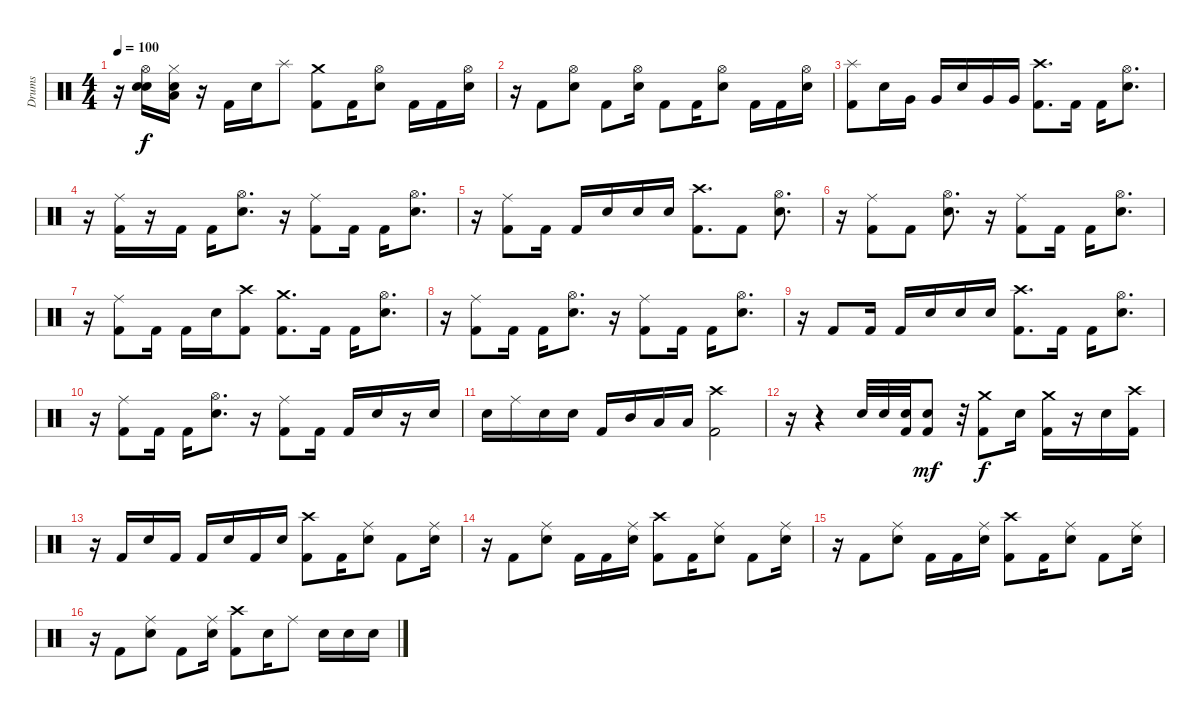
\track ("Drums" "Drums") {instrument percussion}
\staff {score}
\articulation defaults
\ts (4 4)
\tempo 100
\clef neutral
\ks c
r.16{dy f} ("Hi-Hat (open)" "Electric Snare (hit)" "Snare (hit) 2").16 ("Hi-Hat (closed)" "Low Tom (hit)" "Snare (hit) 2").16 r.16 "Kick (hit) 2".16 "Snare (hit) 2".16 "Splash (hit)".8 ("Crash medium (hit)" "Kick (hit) 2").8 "Kick (hit) 2".16 ("Hi-Hat (open)" "Snare (hit) 2").8 "Kick (hit) 2".16 "Kick (hit) 2".16 ("Hi-Hat (open)" "Snare (hit) 2").16 |
r.16 "Kick (hit) 2".8 ("Hi-Hat (open)" "Snare (hit) 2").8 "Kick (hit) 2".8 ("Hi-Hat (open)" "Snare (hit) 2").16 "Kick (hit) 2".8 "Kick (hit) 2".16 ("Hi-Hat (open)" "Snare (hit) 2").8 "Kick (hit) 2".16 "Kick (hit) 2".16 ("Hi-Hat (open)" "Snare (hit) 2").16 |
("Splash (hit)" "Kick (hit) 2").8 "Snare (hit) 2".16 "Very Low Tom (hit)".16 "Very Low Tom (hit)".16 "Snare (hit) 2".16 "Very Low Tom (hit)".16 "Very Low Tom (hit)".16 ("Crash high (hit)" "Kick (hit) 2").8{d} "Kick (hit) 2".16 "Kick (hit) 2".16 ("Hi-Hat (open)" "Snare (hit) 2").8{d} |
r.16 ("Ride (middle)" "Kick (hit) 2").16 r.16 "Kick (hit) 2".16 "Kick (hit) 2".16 ("Hi-Hat (open)" "Snare (hit) 2").8{d} r.16 ("Ride (middle)" "Kick (hit) 2").8 "Kick (hit) 2".16 "Kick (hit) 2".16 ("Hi-Hat (open)" "Snare (hit) 2").8{d} |
r.16 ("Ride (middle)" "Kick (hit) 2").8 "Kick (hit) 2".16 "Kick (hit) 2".16 "Snare (hit) 2".16 "Snare (hit) 2".16 "Snare (hit) 2".16 ("Crash high (hit)" "Kick (hit) 2").8{d} "Kick (hit) 2".8 ("Hi-Hat (open)" "Snare (hit) 2").8{d} |
r.16 ("Ride (middle)" "Kick (hit) 2").8 "Kick (hit) 2".8 ("Hi-Hat (open)" "Snare (hit) 2").8{d} r.16 ("Ride (middle)" "Kick (hit) 2").8 "Kick (hit) 2".16 "Kick (hit) 2".16 ("Hi-Hat (open)" "Snare (hit) 2").8{d} |
r.16 ("Ride (middle)" "Kick (hit) 2").8 "Kick (hit) 2".16 "Kick (hit) 2".16 "Snare (hit) 2".16 ("Crash high (hit)" "Kick (hit) 2").8 ("Crash medium (hit)" "Kick (hit) 2").8{d} "Kick (hit) 2".16 "Kick (hit) 2".16 ("Hi-Hat (open)" "Snare (hit) 2").8{d} |
r.16 ("Ride (middle)" "Kick (hit) 2").8 "Kick (hit) 2".16 "Kick (hit) 2".16 ("Hi-Hat (open)" "Snare (hit) 2").8{d} r.16 ("Ride (middle)" "Kick (hit) 2").8 "Kick (hit) 2".16 "Kick (hit) 2".16 ("Hi-Hat (open)" "Snare (hit) 2").8{d} |
r.16 "Kick (hit) 2".8 "Kick (hit) 2".16 "Kick (hit) 2".16 "Snare (hit) 2".16 "Snare (hit) 2".16 "Snare (hit) 2".16 ("Crash high (hit)" "Kick (hit) 2").8{d} "Kick (hit) 2".16 "Kick (hit) 2".16 ("Hi-Hat (open)" "Snare (hit) 2").8{d} |
r.16 ("Ride (middle)" "Kick (hit) 2").8 "Kick (hit) 2".16 "Kick (hit) 2".16 ("Hi-Hat (open)" "Snare (hit) 2").8{d} r.16 ("Ride (middle)" "Kick (hit) 2").8 "Kick (hit) 2".16 "Kick (hit) 2".16 "Snare (hit) 2".16 r.16 "Snare (hit) 2".16 |
"Snare (hit) 2".16 "Ride (middle)".16 "Snare (hit) 2".16 "Snare (hit) 2".16 "Kick (hit) 2".16 "Mid Tom (hit)".16 "Low Tom (hit)".16 "Low Tom (hit)".16 ("Crash high (hit)" "Kick (hit) 2").2 |
r.16 r.4 "Snare (hit) 2".32 "Snare (hit) 2".32 ("Snare (hit) 2" "Kick (hit) 2").32 ("Snare (hit) 2" "Kick (hit) 2").8{dy mf} r.32 ("Crash medium (hit)" "Kick (hit) 2").8{dy f} "Snare (hit) 2".16 ("Crash medium (hit)" "Kick (hit) 2").16 r.16 "Snare (hit) 2".16 ("Crash high (hit)" "Kick (hit) 2").16 |
r.16 "Kick (hit) 2".16 "Snare (hit) 2".16 "Kick (hit) 2".16 "Kick (hit) 2".16 "Snare (hit) 2".16 "Kick (hit) 2".16 "Snare (hit) 2".16 ("Crash high (hit)" "Kick (hit) 2").8 "Kick (hit) 2".16 ("Ride (middle)" "Snare (hit) 2").8 "Kick (hit) 2".8 ("Ride (middle)" "Snare (hit) 2").16 |
r.16 "Kick (hit) 2".8 ("Ride (middle)" "Snare (hit) 2").8 "Kick (hit) 2".16 "Kick (hit) 2".16 ("Ride (middle)" "Snare (hit) 2").16 ("Crash high (hit)" "Kick (hit) 2").8 "Kick (hit) 2".16 ("Ride (middle)" "Snare (hit) 2").8 "Kick (hit) 2".8 ("Ride (middle)" "Snare (hit) 2").16 |
r.16 "Kick (hit) 2".8 ("Ride (middle)" "Snare (hit) 2").8 "Kick (hit) 2".16 "Kick (hit) 2".16 ("Ride (middle)" "Snare (hit) 2").16 ("Crash high (hit)" "Kick (hit) 2").8 "Kick (hit) 2".16 ("Ride (middle)" "Snare (hit) 2").8 "Kick (hit) 2".8 ("Ride (middle)" "Snare (hit) 2").16 |
r.16 "Kick (hit) 2".8 ("Ride (middle)" "Snare (hit) 2").8 "Kick (hit) 2".8 ("Ride (middle)" "Snare (hit) 2").16 ("Crash high (hit)" "Kick (hit) 2").8 "Snare (hit) 2".16 "Ride (middle)".8 "Snare (hit) 2".16 "Snare (hit) 2".16 "Snare (hit) 2".16
